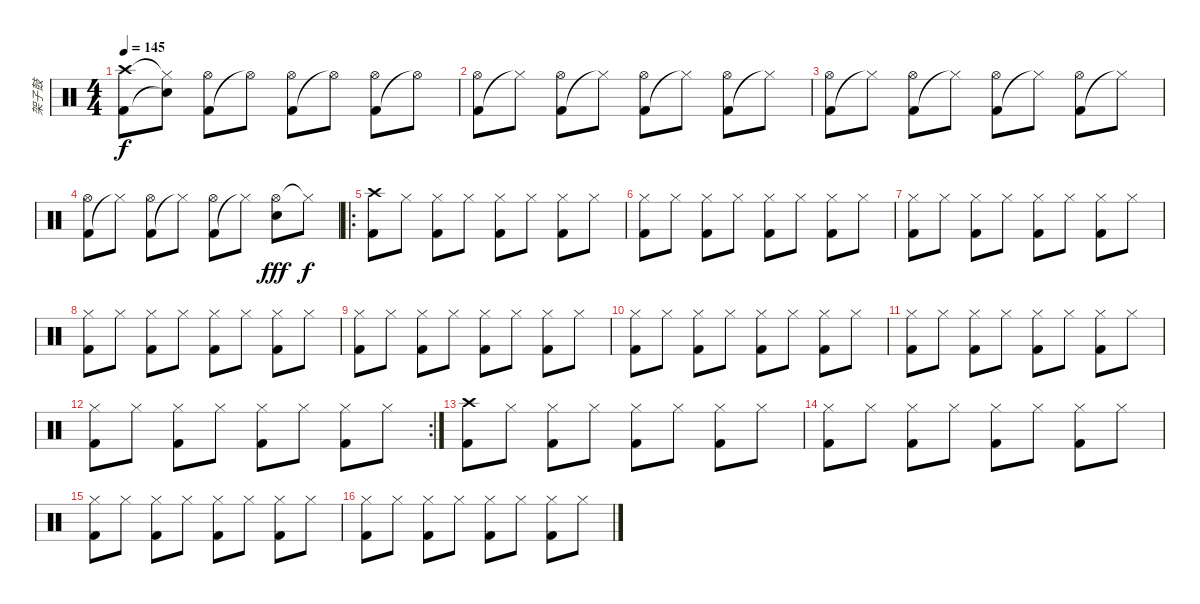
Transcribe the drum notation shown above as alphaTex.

\track ("架子鼓" "架子鼓") {instrument percussion}
\staff {score}
\articulation defaults
\ts (4 4)
\tempo 145
\clef neutral
\ks c
("Kick (hit) 2" "Crash high (hit)").8{dy f} ("Snare (hit)"{t} "Hi-Hat (closed)"{t}).8 ("Kick (hit) 2" "Hi-Hat (open)").8 "Hi-Hat (open)"{t}.8 ("Kick (hit) 2" "Hi-Hat (open)").8 "Hi-Hat (open)"{t}.8 ("Kick (hit) 2" "Hi-Hat (open)").8 "Hi-Hat (open)"{t}.8 |
("Kick (hit) 2" "Hi-Hat (open)").8 "Hi-Hat (closed)"{t}.8 ("Kick (hit) 2" "Hi-Hat (open)").8 "Hi-Hat (closed)"{t}.8 ("Kick (hit) 2" "Hi-Hat (open)").8 "Hi-Hat (closed)"{t}.8 ("Kick (hit) 2" "Hi-Hat (open)").8 "Hi-Hat (closed)"{t}.8 |
("Kick (hit) 2" "Hi-Hat (open)").8 "Hi-Hat (closed)"{t}.8 ("Kick (hit) 2" "Hi-Hat (open)").8 "Hi-Hat (closed)"{t}.8 ("Kick (hit) 2" "Hi-Hat (open)").8 "Hi-Hat (closed)"{t}.8 ("Kick (hit) 2" "Hi-Hat (open)").8 "Hi-Hat (closed)"{t}.8 |
("Kick (hit) 2" "Hi-Hat (open)").8 "Hi-Hat (closed)"{t}.8 ("Kick (hit) 2" "Hi-Hat (open)").8 "Hi-Hat (closed)"{t}.8 ("Kick (hit) 2" "Hi-Hat (open)").8 "Hi-Hat (closed)"{t}.8 ("Hi-Hat (open)" "Snare (hit) 2").8{dy fff} "Hi-Hat (closed)"{t}.8{dy f} |
\ro
("Kick (hit) 2" "Crash high (hit)").8 "Hi-Hat (closed)".8 ("Kick (hit) 2" "Hi-Hat (closed)").8 "Hi-Hat (closed)".8 ("Kick (hit) 2" "Hi-Hat (closed)").8 "Hi-Hat (closed)".8 ("Kick (hit) 2" "Hi-Hat (closed)").8 "Hi-Hat (closed)".8 |
("Kick (hit) 2" "Hi-Hat (closed)").8 "Hi-Hat (closed)".8 ("Kick (hit) 2" "Hi-Hat (closed)").8 "Hi-Hat (closed)".8 ("Kick (hit) 2" "Hi-Hat (closed)").8 "Hi-Hat (closed)".8 ("Kick (hit) 2" "Hi-Hat (closed)").8 "Hi-Hat (closed)".8 |
("Kick (hit) 2" "Hi-Hat (closed)").8 "Hi-Hat (closed)".8 ("Kick (hit) 2" "Hi-Hat (closed)").8 "Hi-Hat (closed)".8 ("Kick (hit) 2" "Hi-Hat (closed)").8 "Hi-Hat (closed)".8 ("Kick (hit) 2" "Hi-Hat (closed)").8 "Hi-Hat (closed)".8 |
("Kick (hit) 2" "Hi-Hat (closed)").8 "Hi-Hat (closed)".8 ("Kick (hit) 2" "Hi-Hat (closed)").8 "Hi-Hat (closed)".8 ("Kick (hit) 2" "Hi-Hat (closed)").8 "Hi-Hat (closed)".8 ("Kick (hit) 2" "Hi-Hat (closed)").8 "Hi-Hat (closed)".8 |
("Kick (hit) 2" "Hi-Hat (closed)").8 "Hi-Hat (closed)".8 ("Kick (hit) 2" "Hi-Hat (closed)").8 "Hi-Hat (closed)".8 ("Kick (hit) 2" "Hi-Hat (closed)").8 "Hi-Hat (closed)".8 ("Kick (hit) 2" "Hi-Hat (closed)").8 "Hi-Hat (closed)".8 |
("Kick (hit) 2" "Hi-Hat (closed)").8 "Hi-Hat (closed)".8 ("Kick (hit) 2" "Hi-Hat (closed)").8 "Hi-Hat (closed)".8 ("Kick (hit) 2" "Hi-Hat (closed)").8 "Hi-Hat (closed)".8 ("Kick (hit) 2" "Hi-Hat (closed)").8 "Hi-Hat (closed)".8 |
("Kick (hit) 2" "Hi-Hat (closed)").8 "Hi-Hat (closed)".8 ("Kick (hit) 2" "Hi-Hat (closed)").8 "Hi-Hat (closed)".8 ("Kick (hit) 2" "Hi-Hat (closed)").8 "Hi-Hat (closed)".8 ("Kick (hit) 2" "Hi-Hat (closed)").8 "Hi-Hat (closed)".8 |
\rc 2
("Kick (hit) 2" "Hi-Hat (closed)").8 "Hi-Hat (closed)".8 ("Kick (hit) 2" "Hi-Hat (closed)").8 "Hi-Hat (closed)".8 ("Kick (hit) 2" "Hi-Hat (closed)").8 "Hi-Hat (closed)".8 ("Kick (hit) 2" "Hi-Hat (closed)").8 "Hi-Hat (closed)".8 |
("Kick (hit) 2" "Crash high (hit)").8 "Hi-Hat (closed)".8 ("Kick (hit) 2" "Hi-Hat (closed)").8 "Hi-Hat (closed)".8 ("Kick (hit) 2" "Hi-Hat (closed)").8 "Hi-Hat (closed)".8 ("Kick (hit) 2" "Hi-Hat (closed)").8 "Hi-Hat (closed)".8 |
("Kick (hit) 2" "Hi-Hat (closed)").8 "Hi-Hat (closed)".8 ("Kick (hit) 2" "Hi-Hat (closed)").8 "Hi-Hat (closed)".8 ("Kick (hit) 2" "Hi-Hat (closed)").8 "Hi-Hat (closed)".8 ("Kick (hit) 2" "Hi-Hat (closed)").8 "Hi-Hat (closed)".8 |
("Kick (hit) 2" "Hi-Hat (closed)").8 "Hi-Hat (closed)".8 ("Kick (hit) 2" "Hi-Hat (closed)").8 "Hi-Hat (closed)".8 ("Kick (hit) 2" "Hi-Hat (closed)").8 "Hi-Hat (closed)".8 ("Kick (hit) 2" "Hi-Hat (closed)").8 "Hi-Hat (closed)".8 |
("Kick (hit) 2" "Hi-Hat (closed)").8 "Hi-Hat (closed)".8 ("Kick (hit) 2" "Hi-Hat (closed)").8 "Hi-Hat (closed)".8 ("Kick (hit) 2" "Hi-Hat (closed)").8 "Hi-Hat (closed)".8 ("Kick (hit) 2" "Hi-Hat (closed)").8 "Hi-Hat (closed)".8
